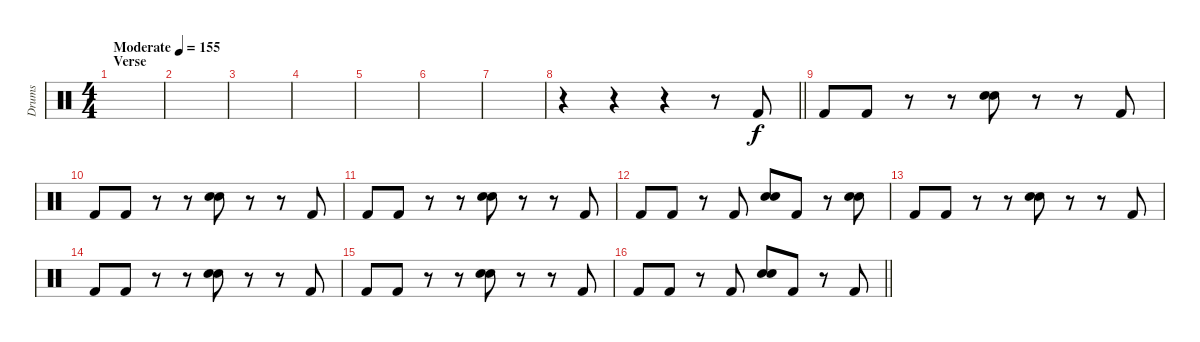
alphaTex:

\track ("Drums" "Drums") {instrument percussion}
\staff {score}
\articulation defaults
\ts (4 4)
\section ("" "Verse")
\tempo (155 "Moderate")
\clef neutral
\ks c
|
|
|
|
|
|
|
\barLineRight lightlight
r.4 r.4 r.4 r.8 "Kick (hit) 2".8 |
\section ("" "")
"Kick (hit) 2".8 "Kick (hit) 2".8 r.8 r.8 ("Electric Snare (hit)" "Hand Clap (hit)").8 r.8 r.8 "Kick (hit) 2".8 |
"Kick (hit) 2".8 "Kick (hit) 2".8 r.8 r.8 ("Electric Snare (hit)" "Hand Clap (hit)").8 r.8 r.8 "Kick (hit) 2".8 |
"Kick (hit) 2".8 "Kick (hit) 2".8 r.8 r.8 ("Electric Snare (hit)" "Hand Clap (hit)").8 r.8 r.8 "Kick (hit) 2".8 |
"Kick (hit) 2".8 "Kick (hit) 2".8 r.8 "Kick (hit) 2".8 ("Electric Snare (hit)" "Hand Clap (hit)").8 "Kick (hit) 2".8 r.8 ("Electric Snare (hit)" "Hand Clap (hit)").8 |
"Kick (hit) 2".8 "Kick (hit) 2".8 r.8 r.8 ("Electric Snare (hit)" "Hand Clap (hit)").8 r.8 r.8 "Kick (hit) 2".8 |
"Kick (hit) 2".8 "Kick (hit) 2".8 r.8 r.8 ("Electric Snare (hit)" "Hand Clap (hit)").8 r.8 r.8 "Kick (hit) 2".8 |
"Kick (hit) 2".8 "Kick (hit) 2".8 r.8 r.8 ("Electric Snare (hit)" "Hand Clap (hit)").8 r.8 r.8 "Kick (hit) 2".8 |
\barLineRight lightlight "Kick (hit) 2".8 "Kick (hit) 2".8
r.8 "Kick (hit) 2".8 ("Electric Snare (hit)" "Hand Clap (hit)").8 "Kick (hit) 2".8 r.8 "Kick (hit) 2".8
